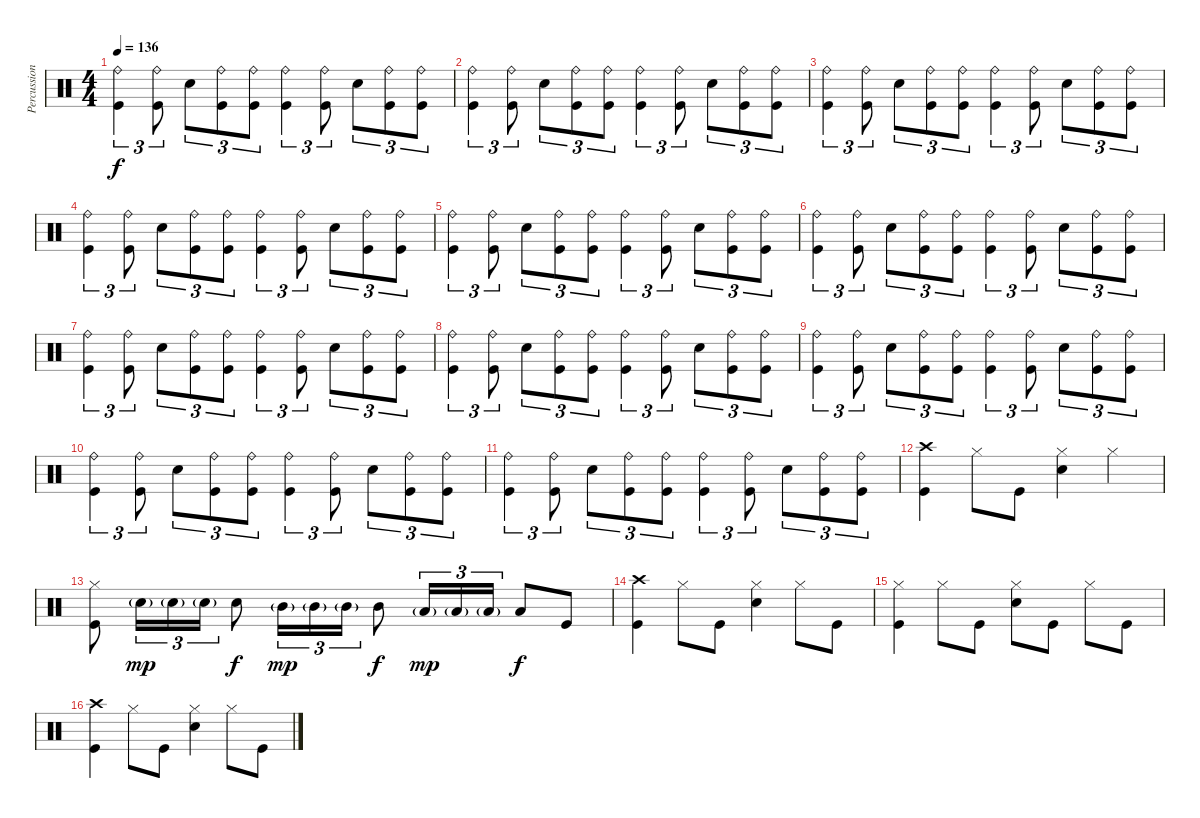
\track ("Percussion" "Percussion") {instrument percussion}
\staff {score}
\articulation defaults
\ts (4 4)
\tempo 136
\clef neutral
\ks c
("Ride (bell)" "Kick (hit)").4{tu (3 2) dy f} ("Ride (bell)" "Kick (hit)").8{tu (3 2)} "Snare (hit) 2".8{tu (3 2)} ("Ride (bell)" "Kick (hit)").8{tu (3 2)} ("Ride (bell)" "Kick (hit)").8{tu (3 2)} ("Ride (bell)" "Kick (hit)").4{tu (3 2)} ("Ride (bell)" "Kick (hit)").8{tu (3 2)} "Snare (hit) 2".8{tu (3 2)} ("Ride (bell)" "Kick (hit)").8{tu (3 2)} ("Ride (bell)" "Kick (hit)").8{tu (3 2)} |
("Ride (bell)" "Kick (hit)").4{tu (3 2)} ("Ride (bell)" "Kick (hit)").8{tu (3 2)} "Snare (hit) 2".8{tu (3 2)} ("Ride (bell)" "Kick (hit)").8{tu (3 2)} ("Ride (bell)" "Kick (hit)").8{tu (3 2)} ("Ride (bell)" "Kick (hit)").4{tu (3 2)} ("Ride (bell)" "Kick (hit)").8{tu (3 2)} "Snare (hit) 2".8{tu (3 2)} ("Ride (bell)" "Kick (hit)").8{tu (3 2)} ("Ride (bell)" "Kick (hit)").8{tu (3 2)} |
("Ride (bell)" "Kick (hit)").4{tu (3 2)} ("Ride (bell)" "Kick (hit)").8{tu (3 2)} "Snare (hit) 2".8{tu (3 2)} ("Ride (bell)" "Kick (hit)").8{tu (3 2)} ("Ride (bell)" "Kick (hit)").8{tu (3 2)} ("Ride (bell)" "Kick (hit)").4{tu (3 2)} ("Ride (bell)" "Kick (hit)").8{tu (3 2)} "Snare (hit) 2".8{tu (3 2)} ("Ride (bell)" "Kick (hit)").8{tu (3 2)} ("Ride (bell)" "Kick (hit)").8{tu (3 2)} |
("Ride (bell)" "Kick (hit)").4{tu (3 2)} ("Ride (bell)" "Kick (hit)").8{tu (3 2)} "Snare (hit) 2".8{tu (3 2)} ("Ride (bell)" "Kick (hit)").8{tu (3 2)} ("Ride (bell)" "Kick (hit)").8{tu (3 2)} ("Ride (bell)" "Kick (hit)").4{tu (3 2)} ("Ride (bell)" "Kick (hit)").8{tu (3 2)} "Snare (hit) 2".8{tu (3 2)} ("Ride (bell)" "Kick (hit)").8{tu (3 2)} ("Ride (bell)" "Kick (hit)").8{tu (3 2)} |
("Ride (bell)" "Kick (hit)").4{tu (3 2)} ("Ride (bell)" "Kick (hit)").8{tu (3 2)} "Snare (hit) 2".8{tu (3 2)} ("Ride (bell)" "Kick (hit)").8{tu (3 2)} ("Ride (bell)" "Kick (hit)").8{tu (3 2)} ("Ride (bell)" "Kick (hit)").4{tu (3 2)} ("Ride (bell)" "Kick (hit)").8{tu (3 2)} "Snare (hit) 2".8{tu (3 2)} ("Ride (bell)" "Kick (hit)").8{tu (3 2)} ("Ride (bell)" "Kick (hit)").8{tu (3 2)} |
("Ride (bell)" "Kick (hit)").4{tu (3 2)} ("Ride (bell)" "Kick (hit)").8{tu (3 2)} "Snare (hit) 2".8{tu (3 2)} ("Ride (bell)" "Kick (hit)").8{tu (3 2)} ("Ride (bell)" "Kick (hit)").8{tu (3 2)} ("Ride (bell)" "Kick (hit)").4{tu (3 2)} ("Ride (bell)" "Kick (hit)").8{tu (3 2)} "Snare (hit) 2".8{tu (3 2)} ("Ride (bell)" "Kick (hit)").8{tu (3 2)} ("Ride (bell)" "Kick (hit)").8{tu (3 2)} |
("Ride (bell)" "Kick (hit)").4{tu (3 2)} ("Ride (bell)" "Kick (hit)").8{tu (3 2)} "Snare (hit) 2".8{tu (3 2)} ("Ride (bell)" "Kick (hit)").8{tu (3 2)} ("Ride (bell)" "Kick (hit)").8{tu (3 2)} ("Ride (bell)" "Kick (hit)").4{tu (3 2)} ("Ride (bell)" "Kick (hit)").8{tu (3 2)} "Snare (hit) 2".8{tu (3 2)} ("Ride (bell)" "Kick (hit)").8{tu (3 2)} ("Ride (bell)" "Kick (hit)").8{tu (3 2)} |
("Ride (bell)" "Kick (hit)").4{tu (3 2)} ("Ride (bell)" "Kick (hit)").8{tu (3 2)} "Snare (hit) 2".8{tu (3 2)} ("Ride (bell)" "Kick (hit)").8{tu (3 2)} ("Ride (bell)" "Kick (hit)").8{tu (3 2)} ("Ride (bell)" "Kick (hit)").4{tu (3 2)} ("Ride (bell)" "Kick (hit)").8{tu (3 2)} "Snare (hit) 2".8{tu (3 2)} ("Ride (bell)" "Kick (hit)").8{tu (3 2)} ("Ride (bell)" "Kick (hit)").8{tu (3 2)} |
("Ride (bell)" "Kick (hit)").4{tu (3 2)} ("Ride (bell)" "Kick (hit)").8{tu (3 2)} "Snare (hit) 2".8{tu (3 2)} ("Ride (bell)" "Kick (hit)").8{tu (3 2)} ("Ride (bell)" "Kick (hit)").8{tu (3 2)} ("Ride (bell)" "Kick (hit)").4{tu (3 2)} ("Ride (bell)" "Kick (hit)").8{tu (3 2)} "Snare (hit) 2".8{tu (3 2)} ("Ride (bell)" "Kick (hit)").8{tu (3 2)} ("Ride (bell)" "Kick (hit)").8{tu (3 2)} |
("Ride (bell)" "Kick (hit)").4{tu (3 2)} ("Ride (bell)" "Kick (hit)").8{tu (3 2)} "Snare (hit) 2".8{tu (3 2)} ("Ride (bell)" "Kick (hit)").8{tu (3 2)} ("Ride (bell)" "Kick (hit)").8{tu (3 2)} ("Ride (bell)" "Kick (hit)").4{tu (3 2)} ("Ride (bell)" "Kick (hit)").8{tu (3 2)} "Snare (hit) 2".8{tu (3 2)} ("Ride (bell)" "Kick (hit)").8{tu (3 2)} ("Ride (bell)" "Kick (hit)").8{tu (3 2)} |
("Ride (bell)" "Kick (hit)").4{tu (3 2)} ("Ride (bell)" "Kick (hit)").8{tu (3 2)} "Snare (hit) 2".8{tu (3 2)} ("Ride (bell)" "Kick (hit)").8{tu (3 2)} ("Ride (bell)" "Kick (hit)").8{tu (3 2)} ("Ride (bell)" "Kick (hit)").4{tu (3 2)} ("Ride (bell)" "Kick (hit)").8{tu (3 2)} "Snare (hit) 2".8{tu (3 2)} ("Ride (bell)" "Kick (hit)").8{tu (3 2)} ("Ride (bell)" "Kick (hit)").8{tu (3 2)} |
("Crash high (hit)" "Kick (hit)").4 "Hi-Hat (closed)".8 "Kick (hit)".8 ("Hi-Hat (closed)" "Snare (hit) 2").4 "Hi-Hat (closed)".4 |
("Hi-Hat (closed)" "Kick (hit)").8 "Snare (hit) 2"{g}.16{tu (3 2) dy mp} "Snare (hit) 2"{g}.16{tu (3 2)} "Snare (hit) 2"{g}.16{tu (3 2)} "Snare (hit) 2".8{dy f} "Mid Tom (hit)"{g}.16{tu (3 2) dy mp} "Mid Tom (hit)"{g}.16{tu (3 2)} "Mid Tom (hit)"{g}.16{tu (3 2)} "Mid Tom (hit)".8{dy f} "Low Floor Tom (hit)"{g}.16{tu (3 2) dy mp} "Low Floor Tom (hit)"{g}.16{tu (3 2)} "Low Floor Tom (hit)"{g}.16{tu (3 2)} "Low Floor Tom (hit)".8{dy f} "Kick (hit)".8 |
("Crash high (hit)" "Kick (hit)").4 "Hi-Hat (closed)".8 "Kick (hit)".8 ("Hi-Hat (closed)" "Snare (hit) 2").4 "Hi-Hat (closed)".8 "Kick (hit)".8 |
("Hi-Hat (closed)" "Kick (hit)").4 "Hi-Hat (closed)".8 "Kick (hit)".8 ("Hi-Hat (closed)" "Snare (hit) 2").8 "Kick (hit)".8 "Hi-Hat (closed)".8 "Kick (hit)".8 |
("Crash high (hit)" "Kick (hit)").4 "Hi-Hat (closed)".8 "Kick (hit)".8 ("Hi-Hat (closed)" "Snare (hit) 2").4 "Hi-Hat (closed)".8 "Kick (hit)".8
